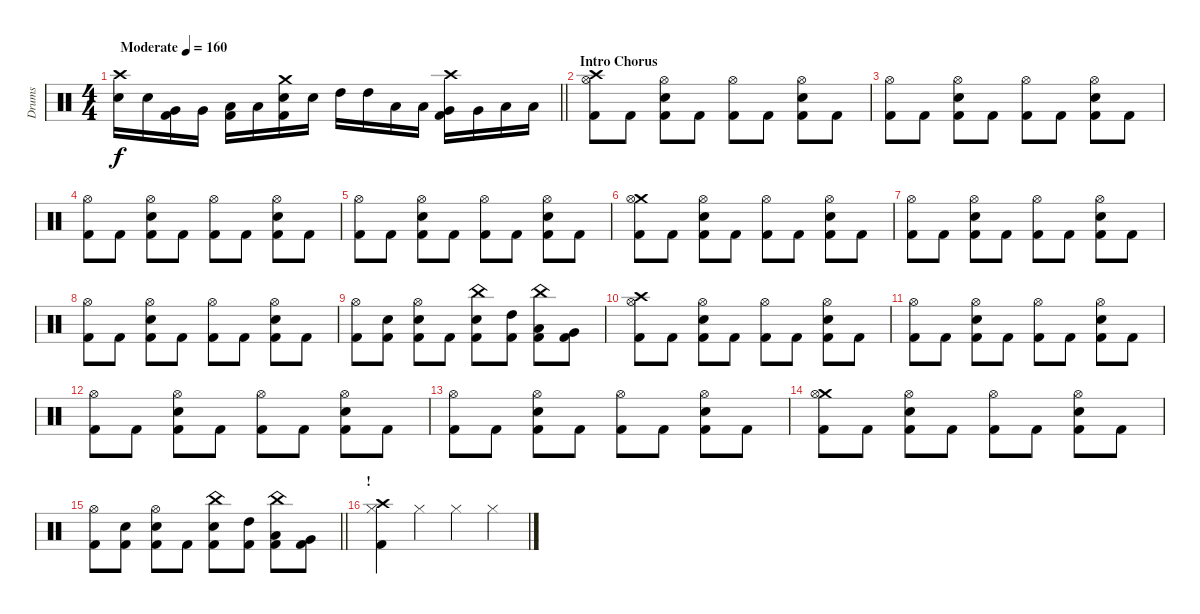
\track ("Drums" "Drums") {instrument percussion}
\staff {score}
\articulation defaults
\ts (4 4)
\tempo (160 "Moderate")
\clef neutral
\barLineRight lightlight
\ks c
("Crash high (hit)" "Snare (hit) 2").16{dy f} "Snare (hit) 2".16 ("Very Low Tom (hit)" "Kick (hit) 2").16 "Very Low Tom (hit)".16 ("Low Floor Tom (hit)" "Kick (hit) 2").16 "Low Floor Tom (hit)".16 ("Crash medium (hit)" "Snare (hit) 2" "Kick (hit) 2").16 "Snare (hit) 2".16 "High Tom (hit)".16 "High Tom (hit)".16 "Low Tom (hit)".16 "Low Tom (hit)".16 ("Crash high (hit)" "Very Low Tom (hit)" "Kick (hit) 2").16 "Very Low Tom (hit)".16 "Low Floor Tom (hit)".16 "Low Floor Tom (hit)".16 |
\section ("" "Intro Chorus")
("Crash high (hit)" "Hi-Hat (open)" "Kick (hit) 2").8 "Kick (hit) 2".8 ("Hi-Hat (open)" "Snare (hit) 2" "Kick (hit) 2").8 "Kick (hit) 2".8 ("Hi-Hat (open)" "Kick (hit) 2").8 "Kick (hit) 2".8 ("Hi-Hat (open)" "Snare (hit) 2" "Kick (hit) 2").8 "Kick (hit) 2".8 |
("Hi-Hat (open)" "Kick (hit) 2").8 "Kick (hit) 2".8 ("Hi-Hat (open)" "Snare (hit) 2" "Kick (hit) 2").8 "Kick (hit) 2".8 ("Hi-Hat (open)" "Kick (hit) 2").8 "Kick (hit) 2".8 ("Hi-Hat (open)" "Snare (hit) 2" "Kick (hit) 2").8 "Kick (hit) 2".8 |
("Hi-Hat (open)" "Kick (hit) 2").8 "Kick (hit) 2".8 ("Hi-Hat (open)" "Snare (hit) 2" "Kick (hit) 2").8 "Kick (hit) 2".8 ("Hi-Hat (open)" "Kick (hit) 2").8 "Kick (hit) 2".8 ("Hi-Hat (open)" "Snare (hit) 2" "Kick (hit) 2").8 "Kick (hit) 2".8 |
("Hi-Hat (open)" "Kick (hit) 2").8 "Kick (hit) 2".8 ("Hi-Hat (open)" "Snare (hit) 2" "Kick (hit) 2").8 "Kick (hit) 2".8 ("Hi-Hat (open)" "Kick (hit) 2").8 "Kick (hit) 2".8 ("Hi-Hat (open)" "Snare (hit) 2" "Kick (hit) 2").8 "Kick (hit) 2".8 |
("Crash medium (hit)" "Hi-Hat (open)" "Kick (hit) 2").8 "Kick (hit) 2".8 ("Hi-Hat (open)" "Snare (hit) 2" "Kick (hit) 2").8 "Kick (hit) 2".8 ("Hi-Hat (open)" "Kick (hit) 2").8 "Kick (hit) 2".8 ("Hi-Hat (open)" "Snare (hit) 2" "Kick (hit) 2").8 "Kick (hit) 2".8 |
("Hi-Hat (open)" "Kick (hit) 2").8 "Kick (hit) 2".8 ("Hi-Hat (open)" "Snare (hit) 2" "Kick (hit) 2").8 "Kick (hit) 2".8 ("Hi-Hat (open)" "Kick (hit) 2").8 "Kick (hit) 2".8 ("Hi-Hat (open)" "Snare (hit) 2" "Kick (hit) 2").8 "Kick (hit) 2".8 |
("Hi-Hat (open)" "Kick (hit) 2").8 "Kick (hit) 2".8 ("Hi-Hat (open)" "Snare (hit) 2" "Kick (hit) 2").8 "Kick (hit) 2".8 ("Hi-Hat (open)" "Kick (hit) 2").8 "Kick (hit) 2".8 ("Hi-Hat (open)" "Snare (hit) 2" "Kick (hit) 2").8 "Kick (hit) 2".8 |
("Hi-Hat (open)" "Kick (hit) 2").8 ("Snare (hit) 2" "Kick (hit) 2").8 ("Hi-Hat (open)" "Snare (hit) 2" "Kick (hit) 2").8 "Kick (hit) 2".8 ("China (hit)" "Snare (hit) 2" "Kick (hit) 2").8 ("High Tom (hit)" "Kick (hit) 2").8 ("China (hit)" "Low Tom (hit)" "Kick (hit) 2").8 ("Very Low Tom (hit)" "Kick (hit) 2").8 |
("Crash high (hit)" "Hi-Hat (open)" "Kick (hit) 2").8 "Kick (hit) 2".8 ("Hi-Hat (open)" "Snare (hit) 2" "Kick (hit) 2").8 "Kick (hit) 2".8 ("Hi-Hat (open)" "Kick (hit) 2").8 "Kick (hit) 2".8 ("Hi-Hat (open)" "Snare (hit) 2" "Kick (hit) 2").8 "Kick (hit) 2".8 |
("Hi-Hat (open)" "Kick (hit) 2").8 "Kick (hit) 2".8 ("Hi-Hat (open)" "Snare (hit) 2" "Kick (hit) 2").8 "Kick (hit) 2".8 ("Hi-Hat (open)" "Kick (hit) 2").8 "Kick (hit) 2".8 ("Hi-Hat (open)" "Snare (hit) 2" "Kick (hit) 2").8 "Kick (hit) 2".8 |
("Hi-Hat (open)" "Kick (hit) 2").8 "Kick (hit) 2".8 ("Hi-Hat (open)" "Snare (hit) 2" "Kick (hit) 2").8 "Kick (hit) 2".8 ("Hi-Hat (open)" "Kick (hit) 2").8 "Kick (hit) 2".8 ("Hi-Hat (open)" "Snare (hit) 2" "Kick (hit) 2").8 "Kick (hit) 2".8 |
("Hi-Hat (open)" "Kick (hit) 2").8 "Kick (hit) 2".8 ("Hi-Hat (open)" "Snare (hit) 2" "Kick (hit) 2").8 "Kick (hit) 2".8 ("Hi-Hat (open)" "Kick (hit) 2").8 "Kick (hit) 2".8 ("Hi-Hat (open)" "Snare (hit) 2" "Kick (hit) 2").8 "Kick (hit) 2".8 |
("Crash medium (hit)" "Hi-Hat (open)" "Kick (hit) 2").8 "Kick (hit) 2".8 ("Hi-Hat (open)" "Snare (hit) 2" "Kick (hit) 2").8 "Kick (hit) 2".8 ("Hi-Hat (open)" "Kick (hit) 2").8 "Kick (hit) 2".8 ("Hi-Hat (open)" "Snare (hit) 2" "Kick (hit) 2").8 "Kick (hit) 2".8 |
\barLineRight lightlight
("Hi-Hat (open)" "Kick (hit) 2").8 ("Snare (hit) 2" "Kick (hit) 2").8 ("Hi-Hat (open)" "Snare (hit) 2" "Kick (hit) 2").8 "Kick (hit) 2".8 ("China (hit)" "Snare (hit) 2" "Kick (hit) 2").8 ("High Tom (hit)" "Kick (hit) 2").8 ("China (hit)" "Low Tom (hit)" "Kick (hit) 2").8 ("Very Low Tom (hit)" "Kick (hit) 2").8 |
\section ("" "!")
("Crash high (hit)" "Hi-Hat (closed)" "Kick (hit) 2").4 "Hi-Hat (closed)".4 "Hi-Hat (closed)".4 "Hi-Hat (closed)".4
